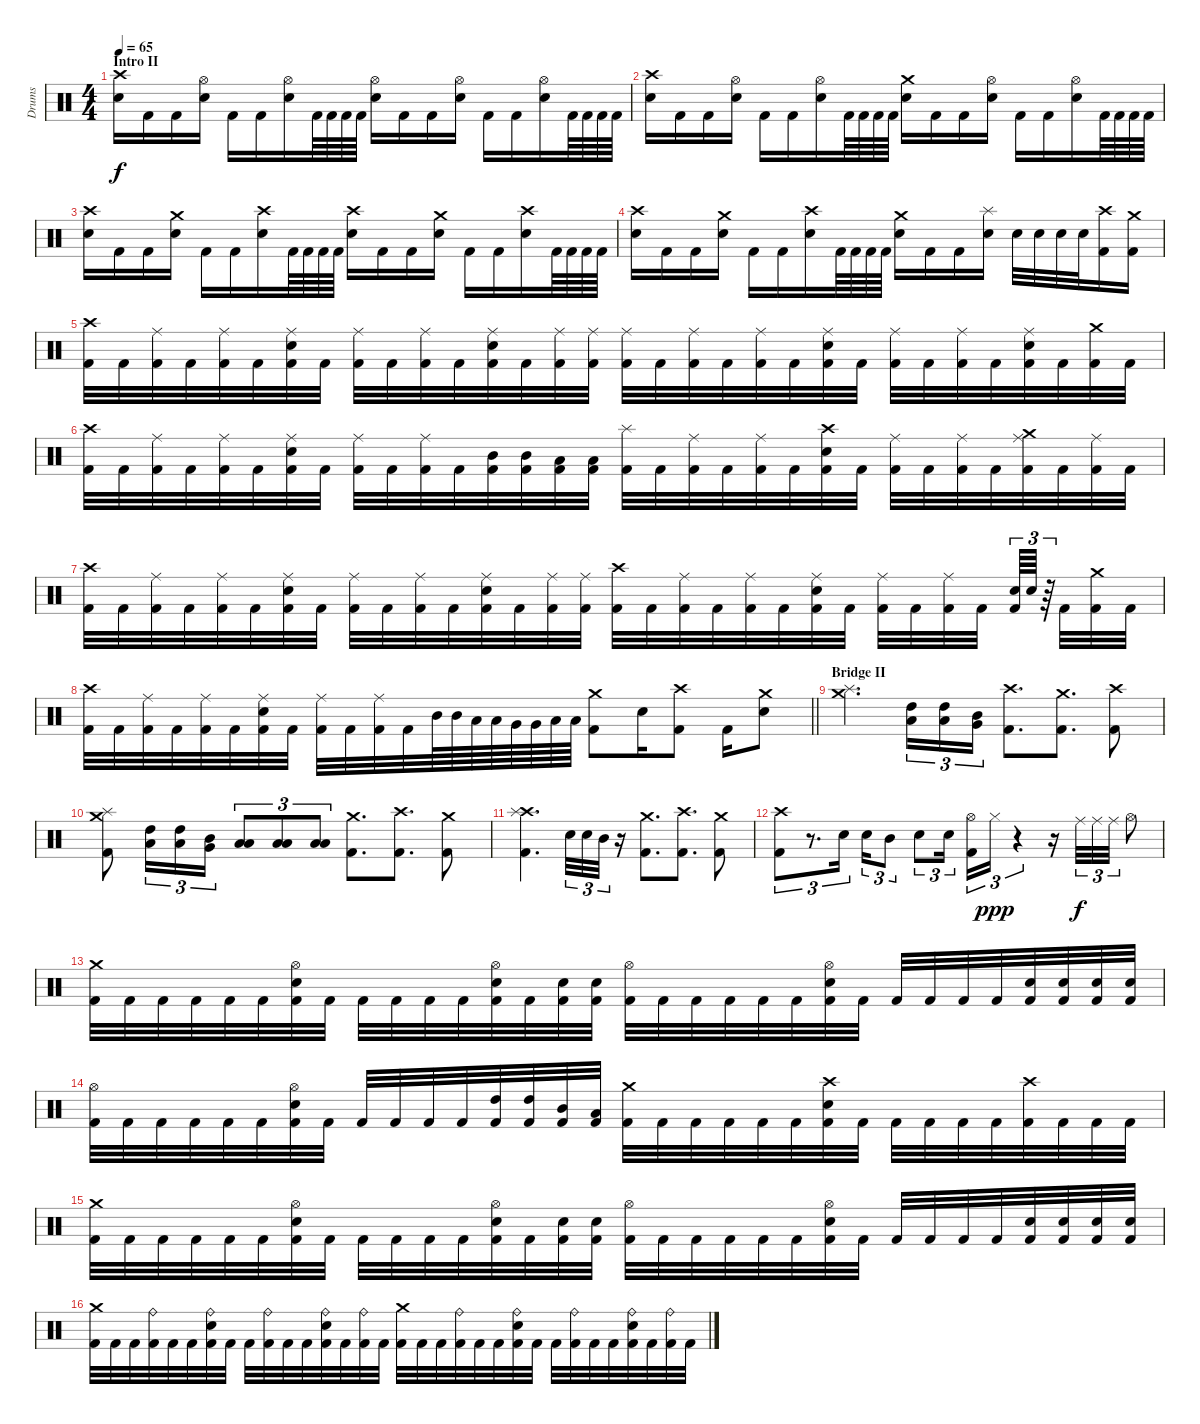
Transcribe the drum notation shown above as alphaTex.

\track ("Drums" "Drums") {instrument percussion}
\staff {score}
\articulation defaults
\ts (4 4)
\section ("" "Intro II")
\tempo 65
\clef neutral
\ks c
("Crash high (hit)" "Electric Snare (hit)").16{dy f} "Kick (hit) 2".16 "Kick (hit) 2".16 ("Hi-Hat (open)" "Electric Snare (hit)").16 "Kick (hit) 2".16 "Kick (hit) 2".16 ("Hi-Hat (open)" "Electric Snare (hit)").16 "Kick (hit) 2".64 "Kick (hit) 2".64 "Kick (hit) 2".64 "Kick (hit) 2".64 ("Hi-Hat (open)" "Electric Snare (hit)").16 "Kick (hit) 2".16 "Kick (hit) 2".16 ("Hi-Hat (open)" "Electric Snare (hit)").16 "Kick (hit) 2".16 "Kick (hit) 2".16 ("Hi-Hat (open)" "Electric Snare (hit)").16 "Kick (hit) 2".64 "Kick (hit) 2".64 "Kick (hit) 2".64 "Kick (hit) 2".64 |
("Crash high (hit)" "Electric Snare (hit)").16 "Kick (hit) 2".16 "Kick (hit) 2".16 ("Hi-Hat (open)" "Electric Snare (hit)").16 "Kick (hit) 2".16 "Kick (hit) 2".16 ("Hi-Hat (open)" "Electric Snare (hit)").16 "Kick (hit) 2".64 "Kick (hit) 2".64 "Kick (hit) 2".64 "Kick (hit) 2".64 ("Crash medium (hit)" "Electric Snare (hit)").16 "Kick (hit) 2".16 "Kick (hit) 2".16 ("Hi-Hat (open)" "Electric Snare (hit)").16 "Kick (hit) 2".16 "Kick (hit) 2".16 ("Hi-Hat (open)" "Electric Snare (hit)").16 "Kick (hit) 2".64 "Kick (hit) 2".64 "Kick (hit) 2".64 "Kick (hit) 2".64 |
("Crash high (hit)" "Electric Snare (hit)").16 "Kick (hit) 2".16 "Kick (hit) 2".16 ("Crash medium (hit)" "Electric Snare (hit)").16 "Kick (hit) 2".16 "Kick (hit) 2".16 ("Crash high (hit)" "Electric Snare (hit)").16 "Kick (hit) 2".64 "Kick (hit) 2".64 "Kick (hit) 2".64 "Kick (hit) 2".64 ("Crash high (hit)" "Electric Snare (hit)").16 "Kick (hit) 2".16 "Kick (hit) 2".16 ("Crash medium (hit)" "Electric Snare (hit)").16 "Kick (hit) 2".16 "Kick (hit) 2".16 ("Crash high (hit)" "Electric Snare (hit)").16 "Kick (hit) 2".64 "Kick (hit) 2".64 "Kick (hit) 2".64 "Kick (hit) 2".64 |
("Crash high (hit)" "Electric Snare (hit)").16 "Kick (hit) 2".16 "Kick (hit) 2".16 ("Crash medium (hit)" "Electric Snare (hit)").16 "Kick (hit) 2".16 "Kick (hit) 2".16 ("Crash high (hit)" "Electric Snare (hit)").16 "Kick (hit) 2".64 "Kick (hit) 2".64 "Kick (hit) 2".64 "Kick (hit) 2".64 ("Crash medium (hit)" "Electric Snare (hit)").16 "Kick (hit) 2".16 "Kick (hit) 2".16 ("Splash (hit)" "Electric Snare (hit)").16 "Electric Snare (hit)".32 "Electric Snare (hit)".32 "Electric Snare (hit)".32 "Electric Snare (hit)".32 ("Crash high (hit)" "Kick (hit) 2").16 ("Crash medium (hit)" "Kick (hit) 2").16 |
("Crash high (hit)" "Kick (hit) 2").32 "Kick (hit) 2".32 ("Ride (middle)" "Kick (hit) 2").32 "Kick (hit) 2".32 ("Ride (middle)" "Kick (hit) 2").32 "Kick (hit) 2".32 ("Ride (middle)" "Electric Snare (hit)" "Kick (hit) 2").32 "Kick (hit) 2".32 ("Ride (middle)" "Kick (hit) 2").32 "Kick (hit) 2".32 ("Ride (middle)" "Kick (hit) 2").32 "Kick (hit) 2".32 ("Ride (middle)" "Electric Snare (hit)" "Kick (hit) 2").32 "Kick (hit) 2".32 ("Ride (middle)" "Kick (hit) 2").32 ("Ride (middle)" "Kick (hit) 2").32 ("Ride (middle)" "Kick (hit) 2").32 "Kick (hit) 2".32 ("Ride (middle)" "Kick (hit) 2").32 "Kick (hit) 2".32 ("Ride (middle)" "Kick (hit) 2").32 "Kick (hit) 2".32 ("Ride (middle)" "Electric Snare (hit)" "Kick (hit) 2").32 "Kick (hit) 2".32 ("Ride (middle)" "Kick (hit) 2").32 "Kick (hit) 2".32 ("Ride (middle)" "Kick (hit) 2").32 "Kick (hit) 2".32 ("Ride (middle)" "Electric Snare (hit)" "Kick (hit) 2").32 "Kick (hit) 2".32 ("Crash medium (hit)" "Kick (hit) 2").32 "Kick (hit) 2".32 |
("Crash high (hit)" "Kick (hit) 2").32 "Kick (hit) 2".32 ("Ride (middle)" "Kick (hit) 2").32 "Kick (hit) 2".32 ("Ride (middle)" "Kick (hit) 2").32 "Kick (hit) 2".32 ("Ride (middle)" "Electric Snare (hit)" "Kick (hit) 2").32 "Kick (hit) 2".32 ("Ride (middle)" "Kick (hit) 2").32 "Kick (hit) 2".32 ("Ride (middle)" "Kick (hit) 2").32 "Kick (hit) 2".32 ("Mid Tom (hit)" "Kick (hit) 2").32 ("Mid Tom (hit)" "Kick (hit) 2").32 ("Low Tom (hit)" "Kick (hit) 2").32 ("Low Tom (hit)" "Kick (hit) 2").32 ("Splash (hit)" "Kick (hit) 2").32 "Kick (hit) 2".32 ("Ride (middle)" "Kick (hit) 2").32 "Kick (hit) 2".32 ("Ride (middle)" "Kick (hit) 2").32 "Kick (hit) 2".32 ("Crash high (hit)" "Electric Snare (hit)" "Kick (hit) 2").32 "Kick (hit) 2".32 ("Ride (middle)" "Kick (hit) 2").32 "Kick (hit) 2".32 ("Ride (middle)" "Kick (hit) 2").32 "Kick (hit) 2".32 ("Crash medium (hit)" "Ride (middle)" "Kick (hit) 2").32 "Kick (hit) 2".32 ("Ride (middle)" "Kick (hit) 2").32 "Kick (hit) 2".32 |
("Crash high (hit)" "Kick (hit) 2").32 "Kick (hit) 2".32 ("Ride (middle)" "Kick (hit) 2").32 "Kick (hit) 2".32 ("Ride (middle)" "Kick (hit) 2").32 "Kick (hit) 2".32 ("Ride (middle)" "Electric Snare (hit)" "Kick (hit) 2").32 "Kick (hit) 2".32 ("Ride (middle)" "Kick (hit) 2").32 "Kick (hit) 2".32 ("Ride (middle)" "Kick (hit) 2").32 "Kick (hit) 2".32 ("Ride (middle)" "Electric Snare (hit)" "Kick (hit) 2").32 "Kick (hit) 2".32 ("Ride (middle)" "Kick (hit) 2").32 ("Ride (middle)" "Kick (hit) 2").32 ("Crash high (hit)" "Kick (hit) 2").32 "Kick (hit) 2".32 ("Ride (middle)" "Kick (hit) 2").32 "Kick (hit) 2".32 ("Ride (middle)" "Kick (hit) 2").32 "Kick (hit) 2".32 ("Ride (middle)" "Electric Snare (hit)" "Kick (hit) 2").32 "Kick (hit) 2".32 ("Ride (middle)" "Kick (hit) 2").32 "Kick (hit) 2".32 ("Ride (middle)" "Kick (hit) 2").32 "Kick (hit) 2".32 ("Electric Snare (hit)" "Kick (hit) 2").64{tu (3 2)} "Electric Snare (hit)".64{tu (3 2)} r.64{tu (3 2)} "Kick (hit) 2".32 ("Crash medium (hit)" "Kick (hit) 2").32 "Kick (hit) 2".32 |
\barLineRight lightlight
("Crash high (hit)" "Kick (hit) 2").32 "Kick (hit) 2".32 ("Ride (middle)" "Kick (hit) 2").32 "Kick (hit) 2".32 ("Ride (middle)" "Kick (hit) 2").32 "Kick (hit) 2".32 ("Ride (middle)" "Electric Snare (hit)" "Kick (hit) 2").32 "Kick (hit) 2".32 ("Ride (middle)" "Kick (hit) 2").32 "Kick (hit) 2".32 ("Ride (middle)" "Kick (hit) 2").32 "Kick (hit) 2".32 "Mid Tom (hit)".64 "Mid Tom (hit)".64 "Low Tom (hit)".64 "Low Tom (hit)".64 "Very Low Tom (hit)".64 "Very Low Tom (hit)".64 "Low Floor Tom (hit)".64 "Low Floor Tom (hit)".64 ("Crash medium (hit)" "Kick (hit) 2").8 "Electric Snare (hit)".16 ("Crash high (hit)" "Kick (hit) 2").8 "Kick (hit) 2".16 ("Crash medium (hit)" "Electric Snare (hit)").8 |
\section ("" "Bridge II")
("Splash (hit)" "Crash medium (hit)").4{d} ("High Tom (hit)" "Low Tom (hit)").16{tu (3 2)} ("High Tom (hit)" "Low Tom (hit)").16{tu (3 2)} ("Mid Tom (hit)" "Very Low Tom (hit)").16{tu (3 2)} ("Crash high (hit)" "Kick (hit) 2").8{d} ("Crash medium (hit)" "Kick (hit) 2").8{d} ("Crash high (hit)" "Kick (hit) 2").8 |
("Crash medium (hit)" "Splash (hit)" "Kick (hit) 2").8 ("High Tom (hit)" "Low Tom (hit)").16{tu (3 2)} ("High Tom (hit)" "Low Tom (hit)").16{tu (3 2)} ("Mid Tom (hit)" "Very Low Tom (hit)").16{tu (3 2)} ("Low Tom (hit)" "Low Floor Tom (hit)").8{tu (3 2)} ("Low Tom (hit)" "Low Floor Tom (hit)").8{tu (3 2)} ("Low Tom (hit)" "Low Floor Tom (hit)").8{tu (3 2)} ("Crash medium (hit)" "Kick (hit) 2").8{d} ("Crash high (hit)" "Kick (hit) 2").8{d} ("Crash medium (hit)" "Kick (hit) 2").8 |
("Crash high (hit)" "Splash (hit)" "Kick (hit) 2").4{d} "Electric Snare (hit)".32{tu (3 2)} "Electric Snare (hit)".32{tu (3 2)} "Mid Tom (hit)".32{tu (3 2)} r.16 ("Crash medium (hit)" "Kick (hit) 2").8{d} ("Crash high (hit)" "Kick (hit) 2").8{d} ("Crash medium (hit)" "Kick (hit) 2").8 |
("Crash high (hit)" "Kick (hit) 2").8{tu (3 2)} r.8{d tu (3 2)} "Electric Snare (hit)".16{tu (3 2)} "Electric Snare (hit)".16{tu (3 2)} "Mid Tom (hit)".8{tu (3 2)} "Electric Snare (hit)".8{tu (3 2)} "Electric Snare (hit)".16{tu (3 2)} ("Hi-Hat (open)" "Kick (hit) 2").16{tu (3 2)} "Hi-Hat (closed)".16{tu (3 2) dy ppp} r.4{tu (3 2)} r.16 "Ride (middle)".32{tu (3 2) dy f} "Ride (middle)".32{tu (3 2)} "Ride (middle)".32{tu (3 2)} "Hi-Hat (open)".8 |
("Crash medium (hit)" "Kick (hit) 2").32 "Kick (hit) 2".32 "Kick (hit) 2".32 "Kick (hit) 2".32 "Kick (hit) 2".32 "Kick (hit) 2".32 ("Hi-Hat (open)" "Electric Snare (hit)" "Kick (hit) 2").32 "Kick (hit) 2".32 "Kick (hit) 2".32 "Kick (hit) 2".32 "Kick (hit) 2".32 "Kick (hit) 2".32 ("Hi-Hat (open)" "Electric Snare (hit)" "Kick (hit) 2").32 "Kick (hit) 2".32 ("Electric Snare (hit)" "Kick (hit) 2").32 ("Electric Snare (hit)" "Kick (hit) 2").32 ("Hi-Hat (open)" "Kick (hit) 2").32 "Kick (hit) 2".32 "Kick (hit) 2".32 "Kick (hit) 2".32 "Kick (hit) 2".32 "Kick (hit) 2".32 ("Hi-Hat (open)" "Electric Snare (hit)" "Kick (hit) 2").32 "Kick (hit) 2".32 "Kick (hit) 2".32 "Kick (hit) 2".32 "Kick (hit) 2".32 "Kick (hit) 2".32 ("Electric Snare (hit)" "Kick (hit) 2").32 ("Electric Snare (hit)" "Kick (hit) 2").32 ("Electric Snare (hit)" "Kick (hit) 2").32 ("Electric Snare (hit)" "Kick (hit) 2").32 |
("Hi-Hat (open)" "Kick (hit) 2").32 "Kick (hit) 2".32 "Kick (hit) 2".32 "Kick (hit) 2".32 "Kick (hit) 2".32 "Kick (hit) 2".32 ("Hi-Hat (open)" "Electric Snare (hit)" "Kick (hit) 2").32 "Kick (hit) 2".32 "Kick (hit) 2".32 "Kick (hit) 2".32 "Kick (hit) 2".32 "Kick (hit) 2".32 ("High Tom (hit)" "Kick (hit) 2").32 ("High Tom (hit)" "Kick (hit) 2").32 ("Mid Tom (hit)" "Kick (hit) 2").32 ("Low Tom (hit)" "Kick (hit) 2").32 ("Crash medium (hit)" "Kick (hit) 2").32 "Kick (hit) 2".32 "Kick (hit) 2".32 "Kick (hit) 2".32 "Kick (hit) 2".32 "Kick (hit) 2".32 ("Crash high (hit)" "Electric Snare (hit)" "Kick (hit) 2").32 "Kick (hit) 2".32 "Kick (hit) 2".32 "Kick (hit) 2".32 "Kick (hit) 2".32 "Kick (hit) 2".32 ("Crash high (hit)" "Kick (hit) 2").32 "Kick (hit) 2".32 "Kick (hit) 2".32 "Kick (hit) 2".32 |
("Crash medium (hit)" "Kick (hit) 2").32 "Kick (hit) 2".32 "Kick (hit) 2".32 "Kick (hit) 2".32 "Kick (hit) 2".32 "Kick (hit) 2".32 ("Hi-Hat (open)" "Electric Snare (hit)" "Kick (hit) 2").32 "Kick (hit) 2".32 "Kick (hit) 2".32 "Kick (hit) 2".32 "Kick (hit) 2".32 "Kick (hit) 2".32 ("Hi-Hat (open)" "Electric Snare (hit)" "Kick (hit) 2").32 "Kick (hit) 2".32 ("Electric Snare (hit)" "Kick (hit) 2").32 ("Electric Snare (hit)" "Kick (hit) 2").32 ("Hi-Hat (open)" "Kick (hit) 2").32 "Kick (hit) 2".32 "Kick (hit) 2".32 "Kick (hit) 2".32 "Kick (hit) 2".32 "Kick (hit) 2".32 ("Hi-Hat (open)" "Electric Snare (hit)" "Kick (hit) 2").32 "Kick (hit) 2".32 "Kick (hit) 2".32 "Kick (hit) 2".32 "Kick (hit) 2".32 "Kick (hit) 2".32 ("Electric Snare (hit)" "Kick (hit) 2").32 ("Electric Snare (hit)" "Kick (hit) 2").32 ("Electric Snare (hit)" "Kick (hit) 2").32 ("Electric Snare (hit)" "Kick (hit) 2").32 |
("Crash medium (hit)" "Kick (hit) 2").32 "Kick (hit) 2".32 "Kick (hit) 2".32 ("Ride (bell)" "Kick (hit) 2").32 "Kick (hit) 2".32 "Kick (hit) 2".32 ("Ride (bell)" "Electric Snare (hit)" "Kick (hit) 2").32 "Kick (hit) 2".32 "Kick (hit) 2".32 ("Ride (bell)" "Kick (hit) 2").32 "Kick (hit) 2".32 "Kick (hit) 2".32 ("Ride (bell)" "Electric Snare (hit)" "Kick (hit) 2").32 "Kick (hit) 2".32 ("Ride (bell)" "Kick (hit) 2").32 "Kick (hit) 2".32 ("Crash medium (hit)" "Kick (hit) 2").32 "Kick (hit) 2".32 "Kick (hit) 2".32 ("Ride (bell)" "Kick (hit) 2").32 "Kick (hit) 2".32 "Kick (hit) 2".32 ("Ride (bell)" "Electric Snare (hit)" "Kick (hit) 2").32 "Kick (hit) 2".32 "Kick (hit) 2".32 ("Ride (bell)" "Kick (hit) 2").32 "Kick (hit) 2".32 "Kick (hit) 2".32 ("Ride (bell)" "Electric Snare (hit)" "Kick (hit) 2").32 "Kick (hit) 2".32 ("Ride (bell)" "Kick (hit) 2").32 "Kick (hit) 2".32
